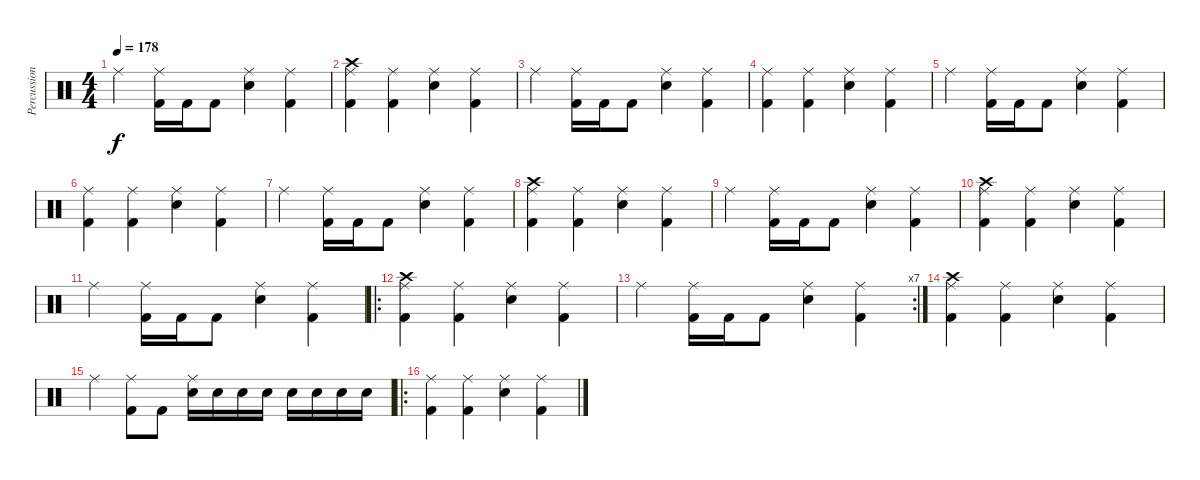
\track ("Percussion" "Percussion") {instrument percussion}
\staff {score}
\articulation defaults
\ts (4 4)
\tempo 178
\clef neutral
\ks c "Ride (middle)".4{dy f}
("Kick (hit) 2" "Ride (middle)").16 "Kick (hit) 2".16 "Kick (hit) 2".8 ("Snare (hit) 2" "Ride (middle)").4 ("Kick (hit) 2" "Ride (middle)").4 |
("Crash high (hit)" "Kick (hit) 2" "Ride (middle)").4 ("Kick (hit) 2" "Ride (middle)").4 ("Snare (hit) 2" "Ride (middle)").4 ("Kick (hit) 2" "Ride (middle)").4 |
"Ride (middle)".4 ("Kick (hit) 2" "Ride (middle)").16 "Kick (hit) 2".16 "Kick (hit) 2".8 ("Snare (hit) 2" "Ride (middle)").4 ("Kick (hit) 2" "Ride (middle)").4 |
("Kick (hit) 2" "Ride (middle)").4 ("Kick (hit) 2" "Ride (middle)").4 ("Snare (hit) 2" "Ride (middle)").4 ("Kick (hit) 2" "Ride (middle)").4 |
"Ride (middle)".4 ("Kick (hit) 2" "Ride (middle)").16 "Kick (hit) 2".16 "Kick (hit) 2".8 ("Snare (hit) 2" "Ride (middle)").4 ("Kick (hit) 2" "Ride (middle)").4 |
("Kick (hit) 2" "Ride (middle)").4 ("Kick (hit) 2" "Ride (middle)").4 ("Snare (hit) 2" "Ride (middle)").4 ("Kick (hit) 2" "Ride (middle)").4 |
"Ride (middle)".4 ("Kick (hit) 2" "Ride (middle)").16 "Kick (hit) 2".16 "Kick (hit) 2".8 ("Snare (hit) 2" "Ride (middle)").4 ("Kick (hit) 2" "Ride (middle)").4 |
("Crash high (hit)" "Kick (hit) 2" "Ride (middle)").4 ("Kick (hit) 2" "Ride (middle)").4 ("Snare (hit) 2" "Ride (middle)").4 ("Kick (hit) 2" "Ride (middle)").4 |
"Ride (middle)".4 ("Kick (hit) 2" "Ride (middle)").16 "Kick (hit) 2".16 "Kick (hit) 2".8 ("Snare (hit) 2" "Ride (middle)").4 ("Kick (hit) 2" "Ride (middle)").4 |
("Crash high (hit)" "Kick (hit) 2" "Ride (middle)").4 ("Kick (hit) 2" "Ride (middle)").4 ("Snare (hit) 2" "Ride (middle)").4 ("Kick (hit) 2" "Ride (middle)").4 |
"Ride (middle)".4 ("Kick (hit) 2" "Ride (middle)").16 "Kick (hit) 2".16 "Kick (hit) 2".8 ("Snare (hit) 2" "Ride (middle)").4 ("Kick (hit) 2" "Ride (middle)").4 |
\ro
("Crash high (hit)" "Kick (hit) 2" "Ride (middle)").4 ("Kick (hit) 2" "Ride (middle)").4 ("Snare (hit) 2" "Ride (middle)").4 ("Kick (hit) 2" "Ride (middle)").4 |
\rc 7 "Ride (middle)".4
("Kick (hit) 2" "Ride (middle)").16 "Kick (hit) 2".16 "Kick (hit) 2".8 ("Snare (hit) 2" "Ride (middle)").4 ("Kick (hit) 2" "Ride (middle)").4 |
("Crash high (hit)" "Kick (hit) 2" "Ride (middle)").4 ("Kick (hit) 2" "Ride (middle)").4 ("Snare (hit) 2" "Ride (middle)").4 ("Kick (hit) 2" "Ride (middle)").4 |
"Ride (middle)".4 ("Kick (hit) 2" "Ride (middle)").8 "Kick (hit) 2".8 ("Snare (hit) 2" "Ride (middle)").16 "Snare (hit) 2".16 "Snare (hit) 2".16 "Snare (hit) 2".16 "Snare (hit) 2".16 "Snare (hit) 2".16 "Snare (hit) 2".16 "Snare (hit) 2".16 |
\ro
("Kick (hit) 2" "Ride (middle)").4 ("Kick (hit) 2" "Ride (middle)").4 ("Snare (hit) 2" "Ride (middle)").4 ("Kick (hit) 2" "Ride (middle)").4
